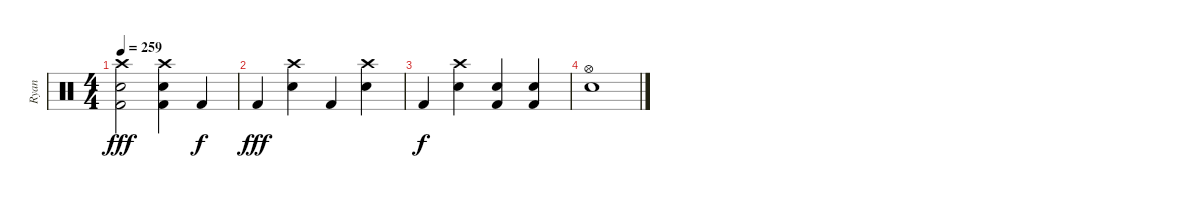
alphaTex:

\track ("Ryan" "Ryan") {instrument percussion}
\staff {score}
\articulation defaults
\ts (4 4)
\tempo 259
\clef neutral
\ks c
("Crash high (hit)" "Electric Snare (hit)" "Kick (hit) 2").2{dy fff} ("Crash high (hit)" "Electric Snare (hit)" "Kick (hit) 2").4 "Kick (hit) 2".4{dy f} |
"Kick (hit) 2".4{dy fff} ("Crash high (hit)" "Electric Snare (hit)").4 "Kick (hit) 2".4 ("Crash high (hit)" "Electric Snare (hit)").4 |
"Kick (hit) 2".4{dy f} ("Crash high (hit)" "Electric Snare (hit)").4 ("Kick (hit) 2" "Electric Snare (hit)").4 ("Kick (hit) 2" "Electric Snare (hit)").4 |
("Hi-Hat (open)" "Electric Snare (hit)").1
